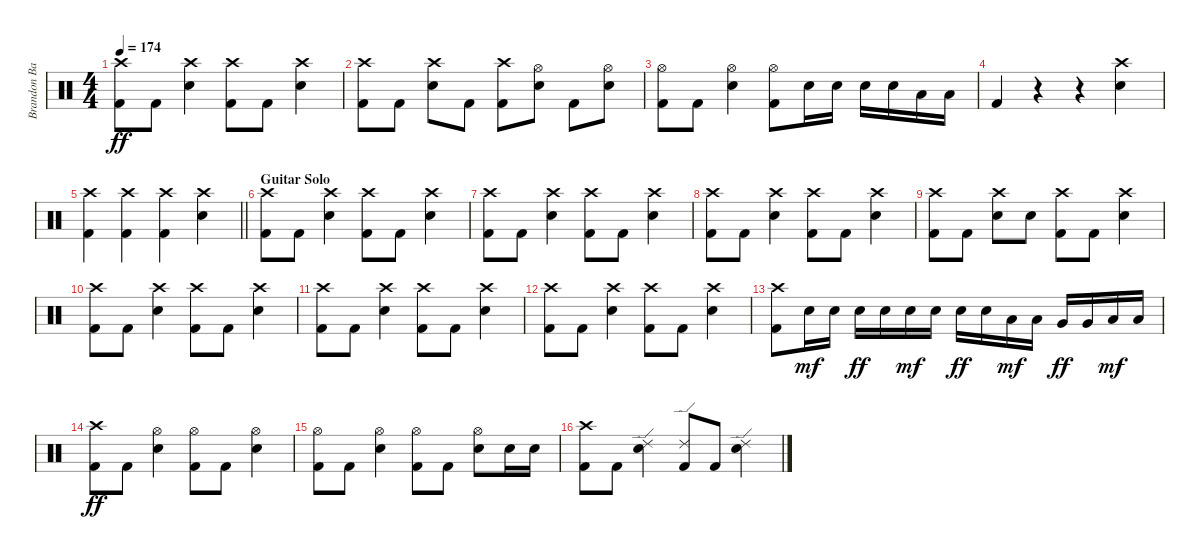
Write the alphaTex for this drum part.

\track ("Brandon Barnes - Drums" "Brandon Ba") {instrument percussion}
\staff {score}
\articulation defaults
\ts (4 4)
\tempo 174
\clef neutral
\ks c
("Kick (hit) 2" "Crash high (hit)").8{dy ff} "Kick (hit) 2".8 ("Snare (hit) 2" "Crash high (hit)").4 ("Kick (hit) 2" "Crash high (hit)").8 "Kick (hit) 2".8 ("Snare (hit) 2" "Crash high (hit)").4 |
("Kick (hit) 2" "Crash high (hit)").8 "Kick (hit) 2".8 ("Snare (hit) 2" "Crash high (hit)").8 "Kick (hit) 2".8 ("Kick (hit) 2" "Crash high (hit)").8 ("Snare (hit) 2" "Hi-Hat (open)").8 "Kick (hit) 2".8 ("Snare (hit) 2" "Hi-Hat (open)").8 |
("Kick (hit) 2" "Hi-Hat (open)").8 "Kick (hit) 2".8 ("Snare (hit) 2" "Hi-Hat (open)").4 ("Kick (hit) 2" "Hi-Hat (open)").8 "Snare (hit) 2".16 "Snare (hit) 2".16 "Snare (hit) 2".16 "Snare (hit) 2".16 "Low Tom (hit)".16 "Low Tom (hit)".16 |
"Kick (hit) 2".4 r.4 r.4 ("Crash high (hit)" "Snare (hit) 2").4 |
\barLineRight lightlight
("Crash high (hit)" "Kick (hit) 2").4 ("Crash high (hit)" "Kick (hit) 2").4 ("Crash high (hit)" "Kick (hit) 2").4 ("Crash high (hit)" "Snare (hit) 2").4 |
\section ("" "Guitar Solo")
("Crash high (hit)" "Kick (hit) 2").8 "Kick (hit) 2".8 ("Snare (hit) 2" "Crash high (hit)").4 ("Crash high (hit)" "Kick (hit) 2").8 "Kick (hit) 2".8 ("Snare (hit) 2" "Crash high (hit)").4 |
("Crash high (hit)" "Kick (hit) 2").8 "Kick (hit) 2".8 ("Snare (hit) 2" "Crash high (hit)").4 ("Crash high (hit)" "Kick (hit) 2").8 "Kick (hit) 2".8 ("Snare (hit) 2" "Crash high (hit)").4 |
("Crash high (hit)" "Kick (hit) 2").8 "Kick (hit) 2".8 ("Snare (hit) 2" "Crash high (hit)").4 ("Crash high (hit)" "Kick (hit) 2").8 "Kick (hit) 2".8 ("Snare (hit) 2" "Crash high (hit)").4 |
("Crash high (hit)" "Kick (hit) 2").8 "Kick (hit) 2".8 ("Snare (hit) 2" "Crash high (hit)").8 "Snare (hit) 2".8 ("Crash high (hit)" "Kick (hit) 2").8 "Kick (hit) 2".8 ("Snare (hit) 2" "Crash high (hit)").4 |
("Crash high (hit)" "Kick (hit) 2").8 "Kick (hit) 2".8 ("Snare (hit) 2" "Crash high (hit)").4 ("Crash high (hit)" "Kick (hit) 2").8 "Kick (hit) 2".8 ("Snare (hit) 2" "Crash high (hit)").4 |
("Crash high (hit)" "Kick (hit) 2").8 "Kick (hit) 2".8 ("Snare (hit) 2" "Crash high (hit)").4 ("Crash high (hit)" "Kick (hit) 2").8 "Kick (hit) 2".8 ("Snare (hit) 2" "Crash high (hit)").4 |
("Crash high (hit)" "Kick (hit) 2").8 "Kick (hit) 2".8 ("Snare (hit) 2" "Crash high (hit)").4 ("Crash high (hit)" "Kick (hit) 2").8 "Kick (hit) 2".8 ("Snare (hit) 2" "Crash high (hit)").4 |
("Crash high (hit)" "Kick (hit) 2").8 "Snare (hit) 2".16{dy mf} "Snare (hit) 2".16 "Snare (hit) 2".16{dy ff} "Snare (hit) 2".16 "Snare (hit) 2".16{dy mf} "Snare (hit) 2".16 "Snare (hit) 2".16{dy ff} "Snare (hit) 2".16 "Low Tom (hit)".16{dy mf} "Low Tom (hit)".16 "Very Low Tom (hit)".16{dy ff} "Very Low Tom (hit)".16 "Low Floor Tom (hit)".16{dy mf} "Low Floor Tom (hit)".16 |
("Crash high (hit)" "Kick (hit) 2").8{dy ff} "Kick (hit) 2".8 ("Snare (hit) 2" "Hi-Hat (open)").4 ("Hi-Hat (open)" "Kick (hit) 2").8 "Kick (hit) 2".8 ("Snare (hit) 2" "Hi-Hat (open)").4 |
("Hi-Hat (open)" "Kick (hit) 2").8 "Kick (hit) 2".8 ("Snare (hit) 2" "Hi-Hat (open)").4 ("Hi-Hat (open)" "Kick (hit) 2").8 "Kick (hit) 2".8 ("Snare (hit) 2" "Hi-Hat (open)").8 "Snare (hit) 2".16 "Snare (hit) 2".16 |
("Crash high (hit)" "Kick (hit) 2").8 "Kick (hit) 2".8 ("Snare (hit) 2" "Ride (edge) 2").4 ("Ride (edge) 2" "Kick (hit) 2").8 "Kick (hit) 2".8 ("Snare (hit) 2" "Ride (edge) 2").4
